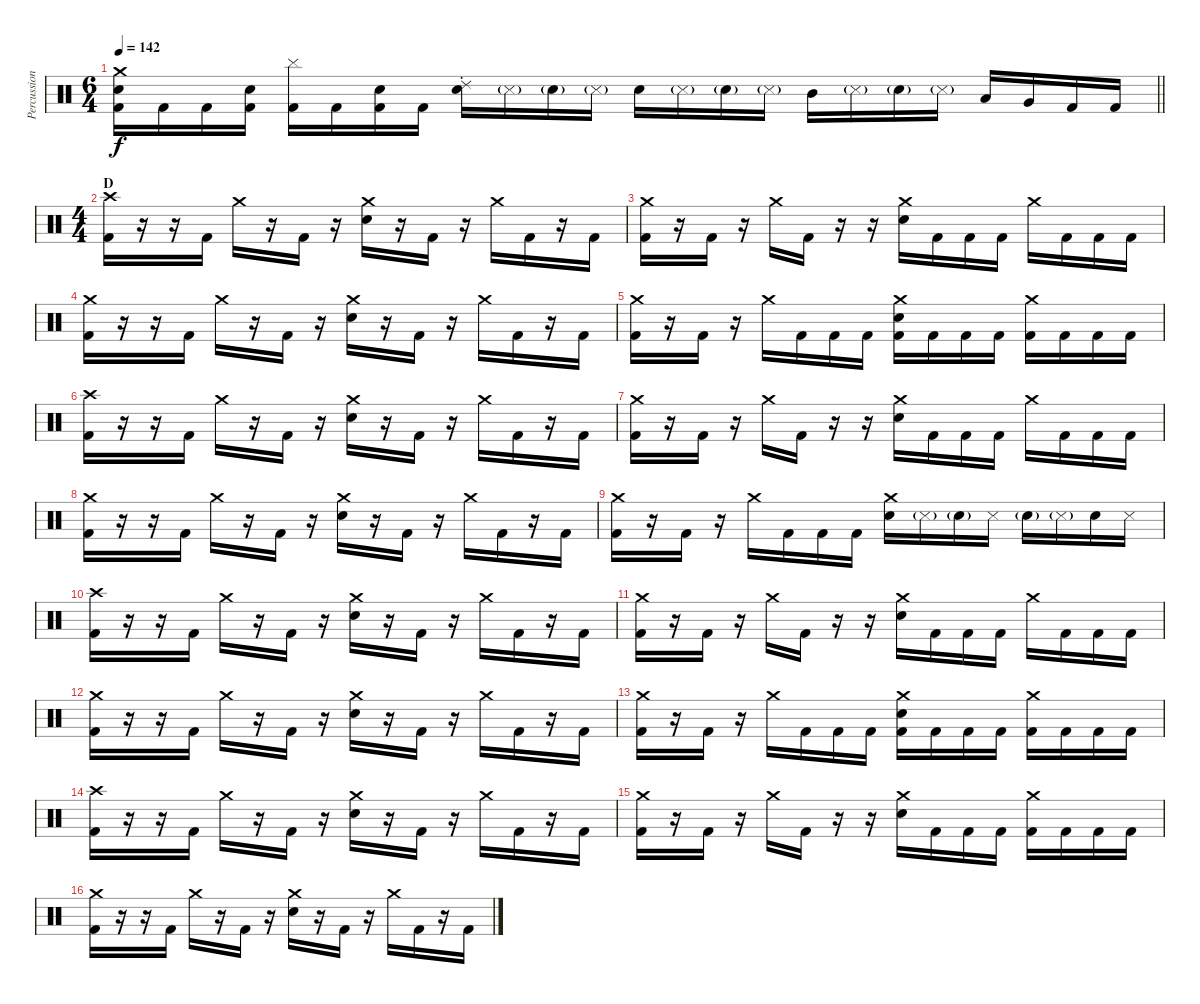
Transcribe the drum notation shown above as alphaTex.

\track ("Percussion" "Percussion") {instrument percussion}
\staff {score}
\articulation defaults
\ts (6 4)
\tempo 142
\clef neutral
\barLineRight lightlight
\ks c
("Crash medium (hit)" "Snare (hit) 2" "Kick (hit) 2").16{dy f} "Kick (hit) 2".16 "Kick (hit) 2".16 ("Snare (hit) 2" "Kick (hit) 2").16 ("Cymbal (hit)" "Kick (hit) 2").16 "Kick (hit) 2".16 ("Snare (hit) 2" "Kick (hit) 2").16 "Kick (hit) 2".16 ("Ride (choke) 2" "Snare (hit) 2").16 "Metronome (hit)"{g}.16 "Snare (hit) 2"{g}.16 "Metronome (hit)"{g}.16 "Snare (hit) 2".16 "Metronome (hit)"{g}.16 "Snare (hit) 2"{g}.16 "Metronome (hit)"{g}.16 "Mid Tom (hit)".16 "Metronome (hit)"{g}.16 "Snare (hit) 2"{g}.16 "Metronome (hit)"{g}.16 "Low Tom (hit)".16 "Very Low Tom (hit)".16 "Kick (hit) 2".16 "Kick (hit) 2".16 |
\ts (4 4)
\section ("" "D")
("Crash high (hit)" "Kick (hit) 2").16 r.16 r.16 "Kick (hit) 2".16 "Crash medium (hit)".16 r.16 "Kick (hit) 2".16 r.16 ("Crash medium (hit)" "Snare (hit) 2").16 r.16 "Kick (hit) 2".16 r.16 "Crash medium (hit)".16 "Kick (hit) 2".16 r.16 "Kick (hit) 2".16 |
("Crash medium (hit)" "Kick (hit) 2").16 r.16 "Kick (hit) 2".16 r.16 "Crash medium (hit)".16 "Kick (hit) 2".16 r.16 r.16 ("Crash medium (hit)" "Snare (hit) 2").16 "Kick (hit) 2".16 "Kick (hit) 2".16 "Kick (hit) 2".16 "Crash medium (hit)".16 "Kick (hit) 2".16 "Kick (hit) 2".16 "Kick (hit) 2".16 |
("Crash medium (hit)" "Kick (hit) 2").16 r.16 r.16 "Kick (hit) 2".16 "Crash medium (hit)".16 r.16 "Kick (hit) 2".16 r.16 ("Crash medium (hit)" "Snare (hit) 2").16 r.16 "Kick (hit) 2".16 r.16 "Crash medium (hit)".16 "Kick (hit) 2".16 r.16 "Kick (hit) 2".16 |
("Crash medium (hit)" "Kick (hit) 2").16 r.16 "Kick (hit) 2".16 r.16 "Crash medium (hit)".16 "Kick (hit) 2".16 "Kick (hit) 2".16 "Kick (hit) 2".16 ("Crash medium (hit)" "Snare (hit) 2" "Kick (hit) 2").16 "Kick (hit) 2".16 "Kick (hit) 2".16 "Kick (hit) 2".16 ("Crash medium (hit)" "Kick (hit) 2").16 "Kick (hit) 2".16 "Kick (hit) 2".16 "Kick (hit) 2".16 |
("Crash high (hit)" "Kick (hit) 2").16 r.16 r.16 "Kick (hit) 2".16 "Crash medium (hit)".16 r.16 "Kick (hit) 2".16 r.16 ("Crash medium (hit)" "Snare (hit) 2").16 r.16 "Kick (hit) 2".16 r.16 "Crash medium (hit)".16 "Kick (hit) 2".16 r.16 "Kick (hit) 2".16 |
("Crash medium (hit)" "Kick (hit) 2").16 r.16 "Kick (hit) 2".16 r.16 "Crash medium (hit)".16 "Kick (hit) 2".16 r.16 r.16 ("Crash medium (hit)" "Snare (hit) 2").16 "Kick (hit) 2".16 "Kick (hit) 2".16 "Kick (hit) 2".16 "Crash medium (hit)".16 "Kick (hit) 2".16 "Kick (hit) 2".16 "Kick (hit) 2".16 |
("Crash medium (hit)" "Kick (hit) 2").16 r.16 r.16 "Kick (hit) 2".16 "Crash medium (hit)".16 r.16 "Kick (hit) 2".16 r.16 ("Crash medium (hit)" "Snare (hit) 2").16 r.16 "Kick (hit) 2".16 r.16 "Crash medium (hit)".16 "Kick (hit) 2".16 r.16 "Kick (hit) 2".16 |
("Crash medium (hit)" "Kick (hit) 2").16 r.16 "Kick (hit) 2".16 r.16 "Crash medium (hit)".16 "Kick (hit) 2".16 "Kick (hit) 2".16 "Kick (hit) 2".16 ("Crash medium (hit)" "Snare (hit) 2").16 "Metronome (hit)"{g}.16 "Snare (hit) 2"{g}.16 "Metronome (hit)".16 "Snare (hit) 2"{g}.16 "Metronome (hit)"{g}.16 "Snare (hit) 2".16 "Metronome (hit)".16 |
("Crash high (hit)" "Kick (hit) 2").16 r.16 r.16 "Kick (hit) 2".16 "Crash medium (hit)".16 r.16 "Kick (hit) 2".16 r.16 ("Crash medium (hit)" "Snare (hit) 2").16 r.16 "Kick (hit) 2".16 r.16 "Crash medium (hit)".16 "Kick (hit) 2".16 r.16 "Kick (hit) 2".16 |
("Crash medium (hit)" "Kick (hit) 2").16 r.16 "Kick (hit) 2".16 r.16 "Crash medium (hit)".16 "Kick (hit) 2".16 r.16 r.16 ("Crash medium (hit)" "Snare (hit) 2").16 "Kick (hit) 2".16 "Kick (hit) 2".16 "Kick (hit) 2".16 "Crash medium (hit)".16 "Kick (hit) 2".16 "Kick (hit) 2".16 "Kick (hit) 2".16 |
("Crash medium (hit)" "Kick (hit) 2").16 r.16 r.16 "Kick (hit) 2".16 "Crash medium (hit)".16 r.16 "Kick (hit) 2".16 r.16 ("Crash medium (hit)" "Snare (hit) 2").16 r.16 "Kick (hit) 2".16 r.16 "Crash medium (hit)".16 "Kick (hit) 2".16 r.16 "Kick (hit) 2".16 |
("Crash medium (hit)" "Kick (hit) 2").16 r.16 "Kick (hit) 2".16 r.16 "Crash medium (hit)".16 "Kick (hit) 2".16 "Kick (hit) 2".16 "Kick (hit) 2".16 ("Crash medium (hit)" "Snare (hit) 2" "Kick (hit) 2").16 "Kick (hit) 2".16 "Kick (hit) 2".16 "Kick (hit) 2".16 ("Crash medium (hit)" "Kick (hit) 2").16 "Kick (hit) 2".16 "Kick (hit) 2".16 "Kick (hit) 2".16 |
("Crash high (hit)" "Kick (hit) 2").16 r.16 r.16 "Kick (hit) 2".16 "Crash medium (hit)".16 r.16 "Kick (hit) 2".16 r.16 ("Crash medium (hit)" "Snare (hit) 2").16 r.16 "Kick (hit) 2".16 r.16 "Crash medium (hit)".16 "Kick (hit) 2".16 r.16 "Kick (hit) 2".16 |
("Crash medium (hit)" "Kick (hit) 2").16 r.16 "Kick (hit) 2".16 r.16 "Crash medium (hit)".16 "Kick (hit) 2".16 r.16 r.16 ("Crash medium (hit)" "Snare (hit) 2").16 "Kick (hit) 2".16 "Kick (hit) 2".16 "Kick (hit) 2".16 ("Crash medium (hit)" "Kick (hit) 2").16 "Kick (hit) 2".16 "Kick (hit) 2".16 "Kick (hit) 2".16 |
("Crash medium (hit)" "Kick (hit) 2").16 r.16 r.16 "Kick (hit) 2".16 "Crash medium (hit)".16 r.16 "Kick (hit) 2".16 r.16 ("Crash medium (hit)" "Snare (hit) 2").16 r.16 "Kick (hit) 2".16 r.16 "Crash medium (hit)".16 "Kick (hit) 2".16 r.16 "Kick (hit) 2".16
